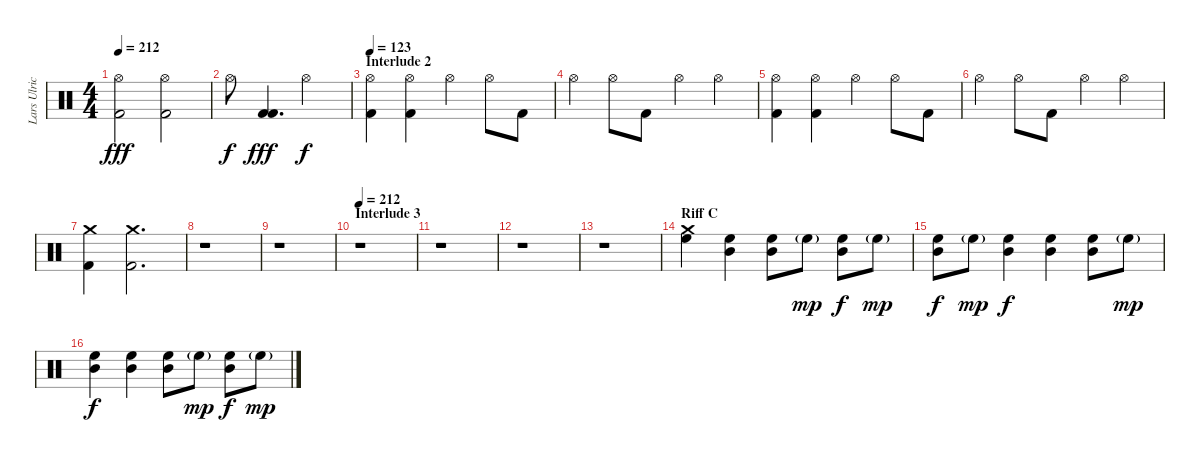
\track ("Lars Ulrich" "Lars Ulric") {instrument percussion}
\staff {score}
\articulation defaults
\ts (4 4)
\tempo 212
\clef neutral
\ks c
("Hi-Hat (open)" "Kick (hit) 2").2{dy fff} ("Hi-Hat (open)" "Kick (hit) 2").2 |
"Hi-Hat (open)".8{dy f} ("Kick (hit) 2" "Kick (hit) 2").4{d dy fff} "Hi-Hat (open)".2{dy f} |
\section ("" "Interlude 2 ")
\tempo 123
("Hi-Hat (open)" "Kick (hit) 2").4 ("Hi-Hat (open)" "Kick (hit) 2").4 "Hi-Hat (open)".4 "Hi-Hat (open)".8 "Kick (hit) 2".8 |
"Hi-Hat (open)".4 "Hi-Hat (open)".8 "Kick (hit) 2".8 "Hi-Hat (open)".4 "Hi-Hat (open)".4 |
("Hi-Hat (open)" "Kick (hit) 2").4 ("Hi-Hat (open)" "Kick (hit) 2").4 "Hi-Hat (open)".4 "Hi-Hat (open)".8 "Kick (hit) 2".8 |
"Hi-Hat (open)".4 "Hi-Hat (open)".8 "Kick (hit) 2".8 "Hi-Hat (open)".4 "Hi-Hat (open)".4 |
("Crash medium (hit)" "Kick (hit) 2").4 ("Crash medium (hit)" "Kick (hit) 2").2{d} |
r.1 |
r.1 |
\section ("" "Interlude 3")
\tempo 212
r.1 |
r.1 |
r.1 |
r.1 |
\section ("" "Riff C")
("Crash medium (hit)" "High Floor Tom (hit)").4 ("Mid Tom (hit)" "High Floor Tom (hit)").4 ("Mid Tom (hit)" "High Floor Tom (hit)").8 "High Floor Tom (hit)"{g}.8{dy mp} ("Mid Tom (hit)" "High Floor Tom (hit)").8{dy f} "High Floor Tom (hit)"{g}.8{dy mp} |
("Mid Tom (hit)" "High Floor Tom (hit)").8{dy f} "High Floor Tom (hit)"{g}.8{dy mp} ("Mid Tom (hit)" "High Floor Tom (hit)").4{dy f} ("Mid Tom (hit)" "High Floor Tom (hit)").4 ("Mid Tom (hit)" "High Floor Tom (hit)").8 "High Floor Tom (hit)"{g}.8{dy mp} |
("Mid Tom (hit)" "High Floor Tom (hit)").4{dy f} ("Mid Tom (hit)" "High Floor Tom (hit)").4 ("Mid Tom (hit)" "High Floor Tom (hit)").8 "High Floor Tom (hit)"{g}.8{dy mp} ("Mid Tom (hit)" "High Floor Tom (hit)").8{dy f} "High Floor Tom (hit)"{g}.8{dy mp}
